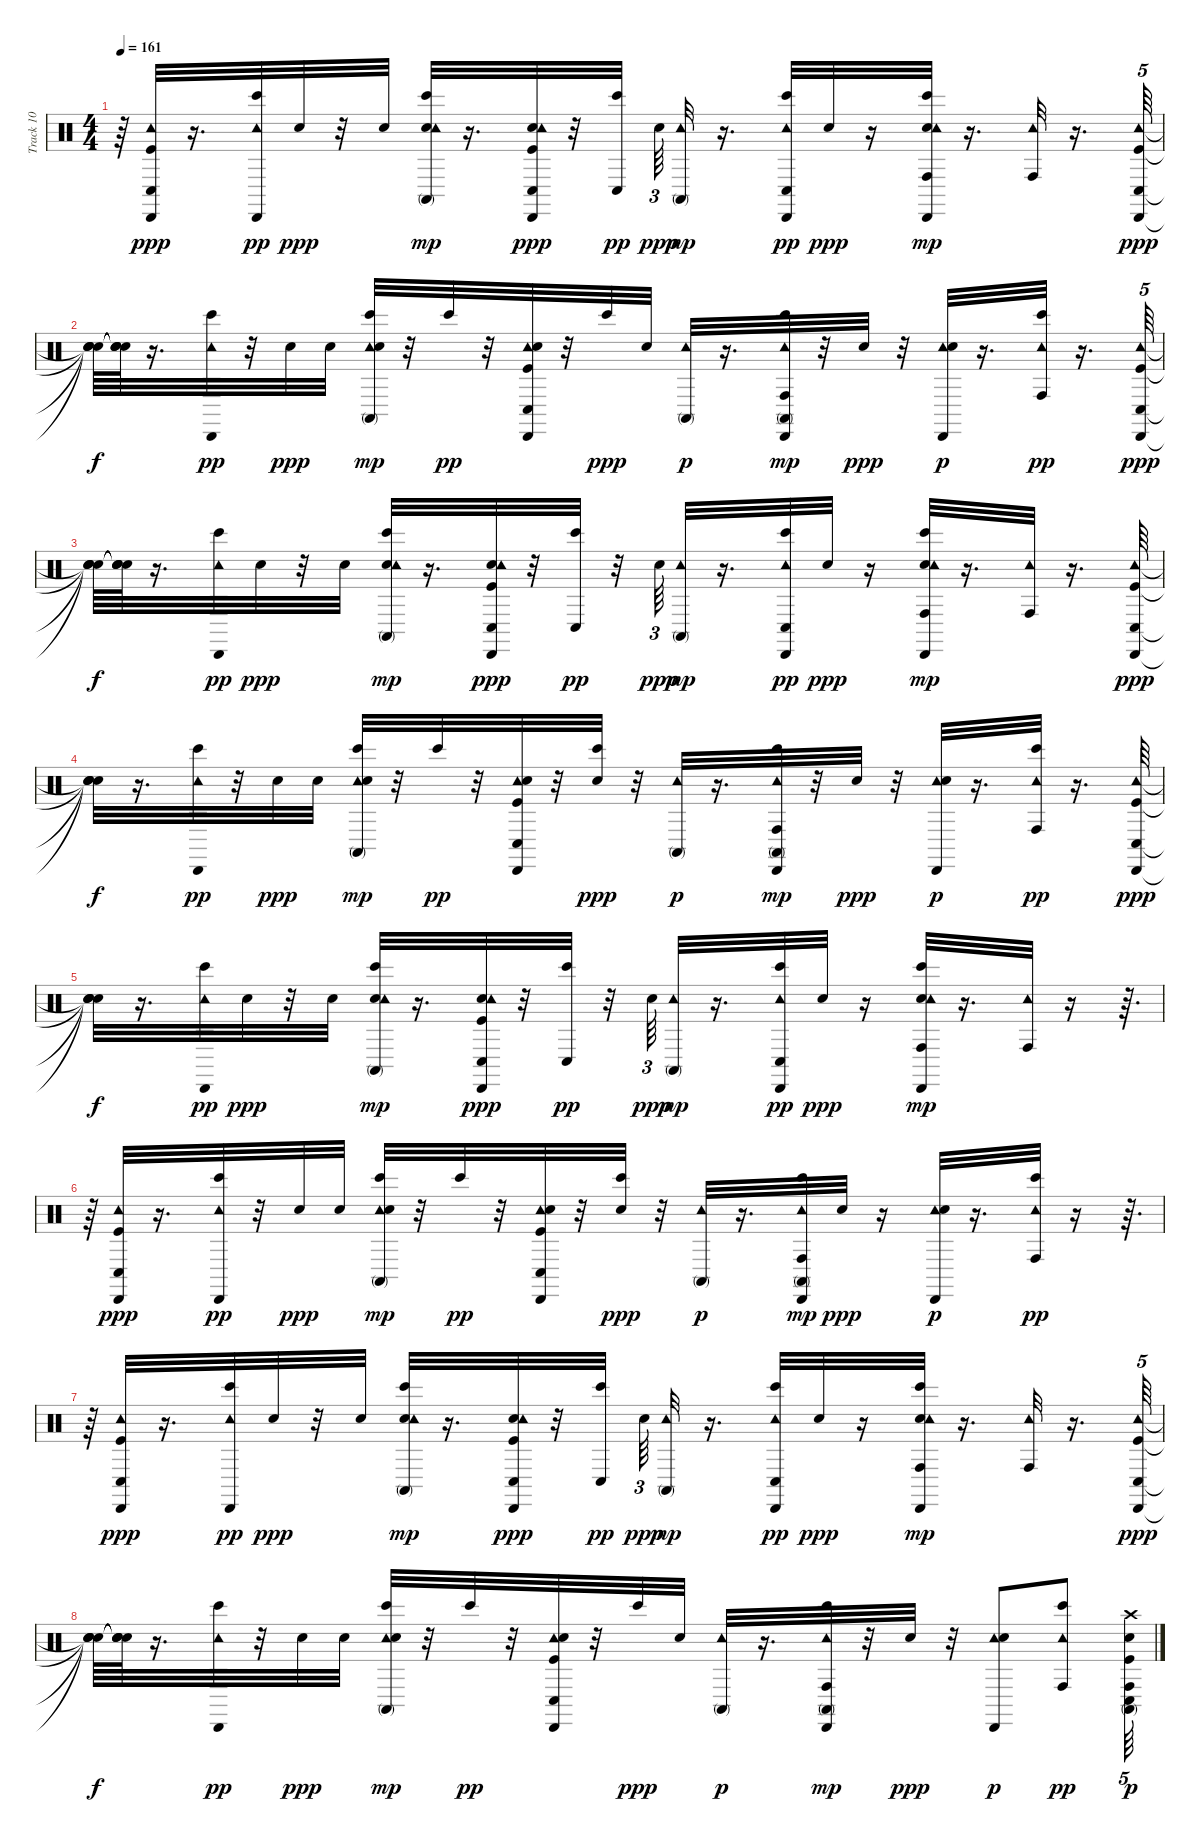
\track ("Track 10" "Track 10") {instrument percussion}
\staff {score}
\articulation defaults
\ts (4 4)
\tempo 161
\clef neutral
\ks c
r.64{dy pp} ("Kick (hit)" "Tambourine (hit)" "Cabasa (hit)" "Conga low (hit)").32{dy ppp} r.16{d} ("Tambourine (hit)" "Cabasa (hit)" "Bongo High (hit)").32{dy pp} "Electric Snare (hit)".32{dy ppp} r.32 "Electric Snare (hit)".32 ("Electric Snare (hit)" "Tambourine (hit)" "Bongo High (hit)" "Conga high (mute)").32{dy mp} r.16{d} ("Kick (hit)" "Electric Snare (hit)" "Tambourine (hit)" "Cabasa (hit)" "Conga low (hit)").32{dy ppp} r.32 ("Bongo High (hit)" "Conga low (hit)").32{dy pp beam splitsecondary} "Electric Snare (hit)".64{tu (3 2) dy ppp} ("Tambourine (hit)" "Conga high (mute)").32{dy mp} r.16{d} ("Bongo High (hit)" "Tambourine (hit)" "Cabasa (hit)" "Conga low (hit)").32{dy pp} "Electric Snare (hit)".32{dy ppp} r.16 ("Electric Snare (hit)" "Bongo High (hit)" "Tambourine (hit)" "Cabasa (hit)" "Conga high (hit)").32{dy mp} r.16{d} ("Tambourine (hit)" "Conga high (hit)").32 r.16{d} ("Kick (hit)" "Tambourine (hit)" "Cabasa (hit)" "Conga low (hit)").64{tu (5 4) dy ppp} |
("Snare (hit)"{t} "Snare (hit)"{t} "Snare (hit)"{t} "Snare (hit)"{t}).64{dy f} ("Snare (hit)"{t} "Snare (hit)"{t} "Snare (hit)"{t} "Snare (hit)"{t}).64 r.16{d} ("Tambourine (hit)" "Cabasa (hit)" "Bongo High (hit)").32{dy pp} r.32 "Electric Snare (hit)".32{dy ppp} "Electric Snare (hit)".32 ("Tambourine (hit)" "Bongo High (hit)" "Conga high (mute)" "Electric Snare (hit)").32{dy mp} r.32 "Bongo High (hit)".32{dy pp} r.32 ("Tambourine (hit)" "Conga low (hit)" "Cabasa (hit)" "Kick (hit)" "Electric Snare (hit)").32 r.32 "Bongo High (hit)".32{dy ppp} "Electric Snare (hit)".32 ("Tambourine (hit)" "Conga high (mute)").32{dy p} r.16{d} ("Tambourine (hit)" "Cabasa (hit)" "Bongo High (hit)" "Conga high (mute)" "Conga high (hit)").32{dy mp} r.32 "Electric Snare (hit)".32{dy ppp} r.32 ("Tambourine (hit)" "Cabasa (hit)" "Electric Snare (hit)").32{dy p} r.16{d} ("Tambourine (hit)" "Conga high (hit)" "Bongo High (hit)").32{dy pp} r.16{d} ("Kick (hit)" "Tambourine (hit)" "Cabasa (hit)" "Conga low (hit)").64{tu (5 4) dy ppp} |
("Snare (hit)"{t} "Snare (hit)"{t} "Snare (hit)"{t} "Snare (hit)"{t}).64{dy f} ("Snare (hit)"{t} "Snare (hit)"{t} "Snare (hit)"{t} "Snare (hit)"{t}).64 r.16{d} ("Tambourine (hit)" "Cabasa (hit)" "Bongo High (hit)").32{dy pp} "Electric Snare (hit)".32{dy ppp} r.32 "Electric Snare (hit)".32 ("Electric Snare (hit)" "Tambourine (hit)" "Bongo High (hit)" "Conga high (mute)").32{dy mp} r.16{d} ("Kick (hit)" "Electric Snare (hit)" "Tambourine (hit)" "Cabasa (hit)" "Conga low (hit)").32{dy ppp} r.32 ("Bongo High (hit)" "Conga low (hit)").32{dy pp} r.32 "Electric Snare (hit)".64{tu (3 2) dy ppp} ("Tambourine (hit)" "Conga high (mute)").32{dy mp} r.16{d} ("Bongo High (hit)" "Tambourine (hit)" "Cabasa (hit)" "Conga low (hit)").32{dy pp} "Electric Snare (hit)".32{dy ppp} r.16 ("Electric Snare (hit)" "Bongo High (hit)" "Tambourine (hit)" "Cabasa (hit)" "Conga high (hit)").32{dy mp} r.16{d} ("Tambourine (hit)" "Conga high (hit)").32 r.16{d} ("Kick (hit)" "Tambourine (hit)" "Cabasa (hit)" "Conga low (hit)").64{dy ppp} |
("Snare (hit)"{t} "Snare (hit)"{t} "Snare (hit)"{t} "Snare (hit)"{t}).32{dy f} r.16{d} ("Tambourine (hit)" "Cabasa (hit)" "Bongo High (hit)").32{dy pp} r.32 "Electric Snare (hit)".32{dy ppp} "Electric Snare (hit)".32 ("Tambourine (hit)" "Bongo High (hit)" "Conga high (mute)" "Electric Snare (hit)").32{dy mp} r.32 "Bongo High (hit)".32{dy pp} r.32 ("Tambourine (hit)" "Conga low (hit)" "Cabasa (hit)" "Kick (hit)" "Electric Snare (hit)").32 r.32 ("Bongo High (hit)" "Electric Snare (hit)").32{dy ppp} r.32 ("Tambourine (hit)" "Conga high (mute)").32{dy p} r.16{d} ("Tambourine (hit)" "Cabasa (hit)" "Bongo High (hit)" "Conga high (mute)" "Conga high (hit)").32{dy mp} r.32 "Electric Snare (hit)".32{dy ppp} r.32 ("Tambourine (hit)" "Cabasa (hit)" "Electric Snare (hit)").32{dy p} r.16{d} ("Tambourine (hit)" "Conga high (hit)" "Bongo High (hit)").32{dy pp} r.16{d} ("Kick (hit)" "Tambourine (hit)" "Cabasa (hit)" "Conga low (hit)").64{dy ppp} |
("Snare (hit)"{t} "Snare (hit)"{t} "Snare (hit)"{t} "Snare (hit)"{t}).32{dy f} r.16{d} ("Tambourine (hit)" "Cabasa (hit)" "Bongo High (hit)").32{dy pp} "Electric Snare (hit)".32{dy ppp} r.32 "Electric Snare (hit)".32 ("Electric Snare (hit)" "Tambourine (hit)" "Bongo High (hit)" "Conga high (mute)").32{dy mp} r.16{d} ("Kick (hit)" "Electric Snare (hit)" "Tambourine (hit)" "Cabasa (hit)" "Conga low (hit)").32{dy ppp} r.32 ("Bongo High (hit)" "Conga low (hit)").32{dy pp} r.32 "Electric Snare (hit)".64{tu (3 2) dy ppp} ("Tambourine (hit)" "Conga high (mute)").32{dy mp} r.16{d} ("Bongo High (hit)" "Tambourine (hit)" "Cabasa (hit)" "Conga low (hit)").32{dy pp} "Electric Snare (hit)".32{dy ppp} r.16 ("Electric Snare (hit)" "Bongo High (hit)" "Tambourine (hit)" "Cabasa (hit)" "Conga high (hit)").32{dy mp} r.16{d} ("Tambourine (hit)" "Conga high (hit)").32 r.16 r.64{d} |
r.64 ("Kick (hit)" "Tambourine (hit)" "Cabasa (hit)" "Conga low (hit)").32{dy ppp} r.16{d} ("Tambourine (hit)" "Cabasa (hit)" "Bongo High (hit)").32{dy pp} r.32 "Electric Snare (hit)".32{dy ppp} "Electric Snare (hit)".32 ("Tambourine (hit)" "Bongo High (hit)" "Conga high (mute)" "Electric Snare (hit)").32{dy mp} r.32 "Bongo High (hit)".32{dy pp} r.32 ("Tambourine (hit)" "Conga low (hit)" "Cabasa (hit)" "Kick (hit)" "Electric Snare (hit)").32 r.32 ("Bongo High (hit)" "Electric Snare (hit)").32{dy ppp} r.32 ("Tambourine (hit)" "Conga high (mute)").32{dy p} r.16{d} ("Tambourine (hit)" "Cabasa (hit)" "Bongo High (hit)" "Conga high (mute)" "Conga high (hit)").32{dy mp} "Electric Snare (hit)".32{dy ppp} r.16 ("Tambourine (hit)" "Cabasa (hit)" "Electric Snare (hit)").32{dy p} r.16{d} ("Tambourine (hit)" "Conga high (hit)" "Bongo High (hit)").32{dy pp} r.16 r.64{d} |
r.64 ("Kick (hit)" "Tambourine (hit)" "Cabasa (hit)" "Conga low (hit)").32{dy ppp} r.16{d} ("Tambourine (hit)" "Cabasa (hit)" "Bongo High (hit)").32{dy pp} "Electric Snare (hit)".32{dy ppp} r.32 "Electric Snare (hit)".32 ("Electric Snare (hit)" "Tambourine (hit)" "Bongo High (hit)" "Conga high (mute)").32{dy mp} r.16{d} ("Kick (hit)" "Electric Snare (hit)" "Tambourine (hit)" "Cabasa (hit)" "Conga low (hit)").32{dy ppp} r.32 ("Bongo High (hit)" "Conga low (hit)").32{dy pp beam splitsecondary} "Electric Snare (hit)".64{tu (3 2) dy ppp} ("Tambourine (hit)" "Conga high (mute)").32{dy mp} r.16{d} ("Bongo High (hit)" "Tambourine (hit)" "Cabasa (hit)" "Conga low (hit)").32{dy pp} "Electric Snare (hit)".32{dy ppp} r.16 ("Electric Snare (hit)" "Bongo High (hit)" "Tambourine (hit)" "Cabasa (hit)" "Conga high (hit)").32{dy mp} r.16{d} ("Tambourine (hit)" "Conga high (hit)").32 r.16{d} ("Kick (hit)" "Tambourine (hit)" "Cabasa (hit)" "Conga low (hit)").64{tu (5 4) dy ppp} |
("Snare (hit)"{t} "Snare (hit)"{t} "Snare (hit)"{t} "Snare (hit)"{t}).64{dy f} ("Snare (hit)"{t} "Snare (hit)"{t} "Snare (hit)"{t} "Snare (hit)"{t}).64 r.16{d} ("Tambourine (hit)" "Cabasa (hit)" "Bongo High (hit)").32{dy pp} r.32 "Electric Snare (hit)".32{dy ppp} "Electric Snare (hit)".32 ("Tambourine (hit)" "Bongo High (hit)" "Conga high (mute)" "Electric Snare (hit)").32{dy mp} r.32 "Bongo High (hit)".32{dy pp} r.32 ("Tambourine (hit)" "Conga low (hit)" "Cabasa (hit)" "Kick (hit)" "Electric Snare (hit)").32 r.32 "Bongo High (hit)".32{dy ppp} "Electric Snare (hit)".32 ("Tambourine (hit)" "Conga high (mute)").32{dy p} r.16{d} ("Tambourine (hit)" "Cabasa (hit)" "Bongo High (hit)" "Conga high (mute)" "Conga high (hit)").32{dy mp} r.32 "Electric Snare (hit)".32{dy ppp} r.32 ("Tambourine (hit)" "Cabasa (hit)" "Electric Snare (hit)").8{dy p} ("Tambourine (hit)" "Conga high (hit)" "Bongo High (hit)").8{dy pp} ("Conga low (hit)" "Conga high (hit)" "Conga high (mute)" "Electric Snare (hit)" "Crash high (hit)" "Kick (hit)").64{tu (5 4) dy p}
